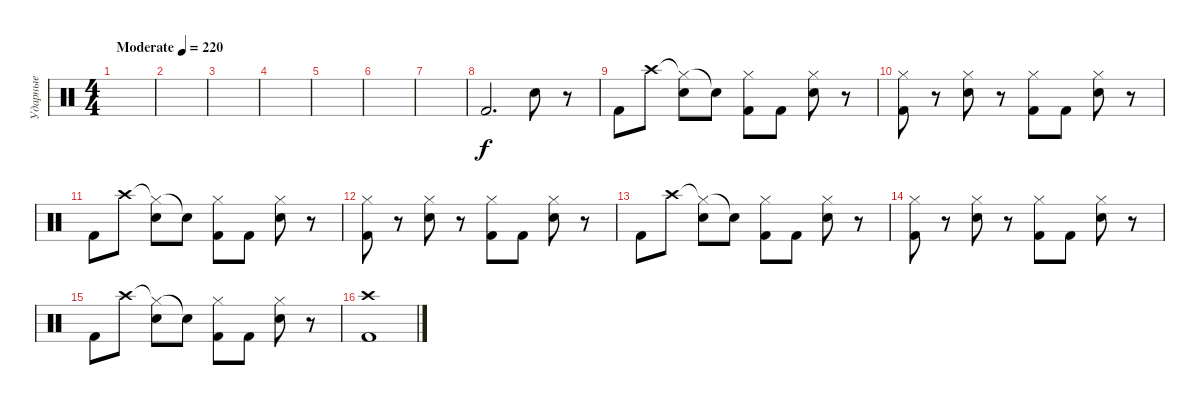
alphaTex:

\track ("Ударные" "Ударные") {instrument percussion}
\staff {score}
\articulation defaults
\ts (4 4)
\tempo (220 "Moderate")
\clef neutral
\ks c
|
|
|
|
|
|
|
"Kick (hit) 2".2{d} "Electric Snare (hit)".8 r.8 |
"Kick (hit) 2".8 "Crash high (hit)".8 ("Hi-Hat (closed)"{t} "Electric Snare (hit)").8 "Snare (hit)"{t}.8 ("Hi-Hat (closed)" "Kick (hit) 2").8 "Kick (hit) 2".8 ("Hi-Hat (closed)" "Electric Snare (hit)").8 r.8 |
("Hi-Hat (closed)" "Kick (hit) 2").8 r.8 ("Hi-Hat (closed)" "Electric Snare (hit)").8 r.8 ("Hi-Hat (closed)" "Kick (hit) 2").8 "Kick (hit) 2".8 ("Hi-Hat (closed)" "Electric Snare (hit)").8 r.8 |
"Kick (hit) 2".8 "Crash high (hit)".8 ("Hi-Hat (closed)"{t} "Electric Snare (hit)").8 "Snare (hit)"{t}.8 ("Hi-Hat (closed)" "Kick (hit) 2").8 "Kick (hit) 2".8 ("Hi-Hat (closed)" "Electric Snare (hit)").8 r.8 |
("Hi-Hat (closed)" "Kick (hit) 2").8 r.8 ("Hi-Hat (closed)" "Electric Snare (hit)").8 r.8 ("Hi-Hat (closed)" "Kick (hit) 2").8 "Kick (hit) 2".8 ("Hi-Hat (closed)" "Electric Snare (hit)").8 r.8 |
"Kick (hit) 2".8 "Crash high (hit)".8 ("Hi-Hat (closed)"{t} "Electric Snare (hit)").8 "Snare (hit)"{t}.8 ("Hi-Hat (closed)" "Kick (hit) 2").8 "Kick (hit) 2".8 ("Hi-Hat (closed)" "Electric Snare (hit)").8 r.8 |
("Hi-Hat (closed)" "Kick (hit) 2").8 r.8 ("Hi-Hat (closed)" "Electric Snare (hit)").8 r.8 ("Hi-Hat (closed)" "Kick (hit) 2").8 "Kick (hit) 2".8 ("Hi-Hat (closed)" "Electric Snare (hit)").8 r.8 |
"Kick (hit) 2".8 "Crash high (hit)".8 ("Hi-Hat (closed)"{t} "Electric Snare (hit)").8 "Snare (hit)"{t}.8 ("Hi-Hat (closed)" "Kick (hit) 2").8 "Kick (hit) 2".8 ("Hi-Hat (closed)" "Electric Snare (hit)").8 r.8 |
("Crash high (hit)" "Kick (hit) 2").1
